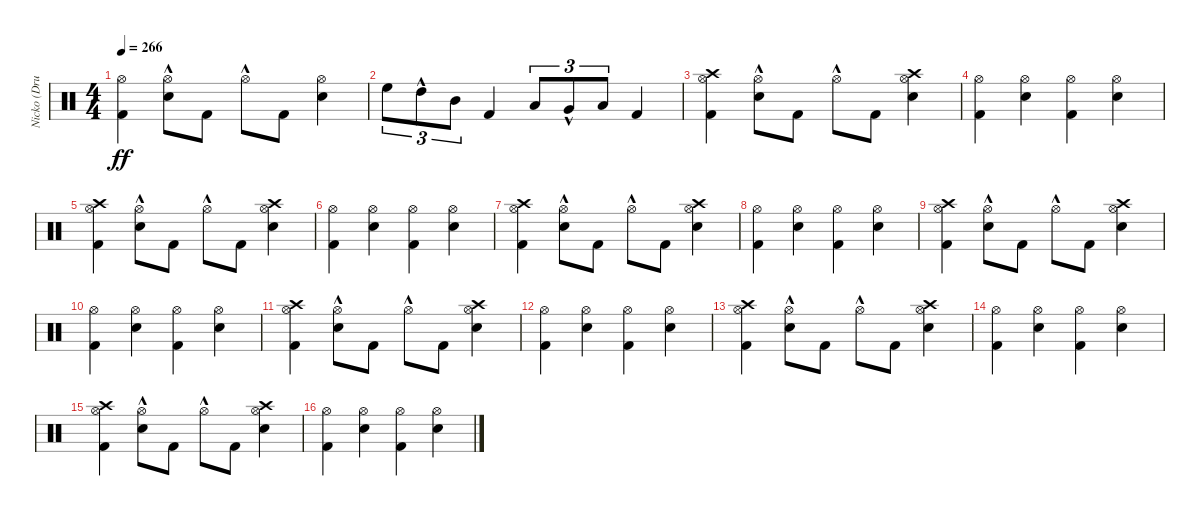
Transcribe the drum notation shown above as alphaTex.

\track ("Nicko (Drums)" "Nicko (Dru") {instrument percussion}
\staff {score}
\articulation defaults
\ts (4 4)
\tempo 266
\clef neutral
\ks c
("Kick (hit) 2" "Hi-Hat (open)").4{dy ff} ("Snare (hit) 2" "Hi-Hat (open)"{hac}).8 "Kick (hit) 2".8 "Hi-Hat (open)"{hac}.8 "Kick (hit) 2".8 ("Snare (hit) 2" "Hi-Hat (open)").4 |
"High Floor Tom (hit)".8{tu (3 2)} "High Tom (hit)"{hac}.8{tu (3 2)} "Mid Tom (hit)".8{tu (3 2)} "Kick (hit) 2".4 "Low Tom (hit)".8{tu (3 2)} "Very Low Tom (hit)"{hac}.8{tu (3 2)} "Low Floor Tom (hit)".8{tu (3 2)} "Kick (hit) 2".4 |
("Kick (hit) 2" "Hi-Hat (open)" "Crash high (hit)").4 ("Snare (hit) 2" "Hi-Hat (open)"{hac}).8 "Kick (hit) 2".8 "Hi-Hat (open)"{hac}.8 "Kick (hit) 2".8 ("Snare (hit) 2" "Hi-Hat (open)" "Crash high (hit)").4 |
("Kick (hit) 2" "Hi-Hat (open)").4 ("Snare (hit) 2" "Hi-Hat (open)").4 ("Kick (hit) 2" "Hi-Hat (open)").4 ("Snare (hit) 2" "Hi-Hat (open)").4 |
("Kick (hit) 2" "Hi-Hat (open)" "Crash high (hit)").4 ("Snare (hit) 2" "Hi-Hat (open)"{hac}).8 "Kick (hit) 2".8 "Hi-Hat (open)"{hac}.8 "Kick (hit) 2".8 ("Snare (hit) 2" "Hi-Hat (open)" "Crash high (hit)").4 |
("Kick (hit) 2" "Hi-Hat (open)").4 ("Snare (hit) 2" "Hi-Hat (open)").4 ("Kick (hit) 2" "Hi-Hat (open)").4 ("Snare (hit) 2" "Hi-Hat (open)").4 |
("Kick (hit) 2" "Hi-Hat (open)" "Crash high (hit)").4 ("Snare (hit) 2" "Hi-Hat (open)"{hac}).8 "Kick (hit) 2".8 "Hi-Hat (open)"{hac}.8 "Kick (hit) 2".8 ("Snare (hit) 2" "Hi-Hat (open)" "Crash high (hit)").4 |
("Kick (hit) 2" "Hi-Hat (open)").4 ("Snare (hit) 2" "Hi-Hat (open)").4 ("Kick (hit) 2" "Hi-Hat (open)").4 ("Snare (hit) 2" "Hi-Hat (open)").4 |
("Kick (hit) 2" "Hi-Hat (open)" "Crash high (hit)").4 ("Snare (hit) 2" "Hi-Hat (open)"{hac}).8 "Kick (hit) 2".8 "Hi-Hat (open)"{hac}.8 "Kick (hit) 2".8 ("Snare (hit) 2" "Hi-Hat (open)" "Crash high (hit)").4 |
("Kick (hit) 2" "Hi-Hat (open)").4 ("Snare (hit) 2" "Hi-Hat (open)").4 ("Kick (hit) 2" "Hi-Hat (open)").4 ("Snare (hit) 2" "Hi-Hat (open)").4 |
("Kick (hit) 2" "Hi-Hat (open)" "Crash high (hit)").4 ("Snare (hit) 2" "Hi-Hat (open)"{hac}).8 "Kick (hit) 2".8 "Hi-Hat (open)"{hac}.8 "Kick (hit) 2".8 ("Snare (hit) 2" "Hi-Hat (open)" "Crash high (hit)").4 |
("Kick (hit) 2" "Hi-Hat (open)").4 ("Snare (hit) 2" "Hi-Hat (open)").4 ("Kick (hit) 2" "Hi-Hat (open)").4 ("Snare (hit) 2" "Hi-Hat (open)").4 |
("Kick (hit) 2" "Hi-Hat (open)" "Crash high (hit)").4 ("Snare (hit) 2" "Hi-Hat (open)"{hac}).8 "Kick (hit) 2".8 "Hi-Hat (open)"{hac}.8 "Kick (hit) 2".8 ("Snare (hit) 2" "Hi-Hat (open)" "Crash high (hit)").4 |
("Kick (hit) 2" "Hi-Hat (open)").4 ("Snare (hit) 2" "Hi-Hat (open)").4 ("Kick (hit) 2" "Hi-Hat (open)").4 ("Snare (hit) 2" "Hi-Hat (open)").4 |
("Kick (hit) 2" "Hi-Hat (open)" "Crash high (hit)").4 ("Snare (hit) 2" "Hi-Hat (open)"{hac}).8 "Kick (hit) 2".8 "Hi-Hat (open)"{hac}.8 "Kick (hit) 2".8 ("Snare (hit) 2" "Hi-Hat (open)" "Crash high (hit)").4 |
("Kick (hit) 2" "Hi-Hat (open)").4 ("Snare (hit) 2" "Hi-Hat (open)").4 ("Kick (hit) 2" "Hi-Hat (open)").4 ("Snare (hit) 2" "Hi-Hat (open)").4
